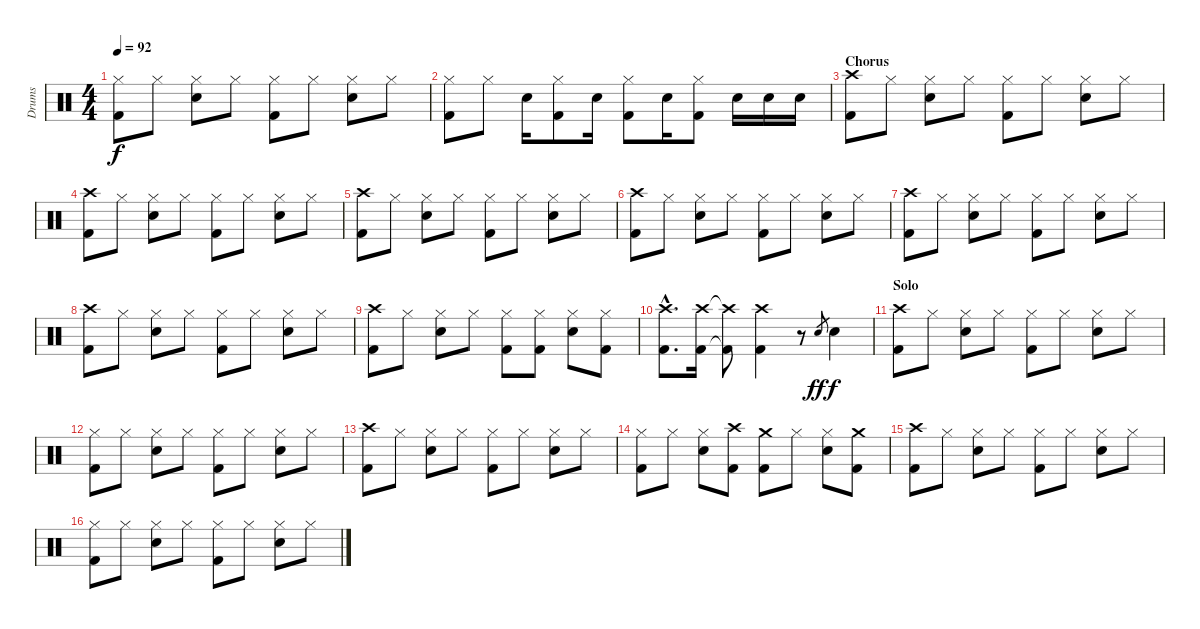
\track ("Drums" "Drums") {instrument percussion}
\staff {score}
\articulation defaults
\ts (4 4)
\tempo 92
\clef neutral
\ks c
("Hi-Hat (closed)" "Kick (hit) 2").8{dy f} "Hi-Hat (closed)".8 ("Hi-Hat (closed)" "Snare (hit) 2").8 "Hi-Hat (closed)".8 ("Hi-Hat (closed)" "Kick (hit) 2").8 "Hi-Hat (closed)".8 ("Hi-Hat (closed)" "Snare (hit) 2").8 "Hi-Hat (closed)".8 |
("Hi-Hat (closed)" "Kick (hit) 2").8 "Hi-Hat (closed)".8 "Snare (hit) 2".16 ("Hi-Hat (closed)" "Kick (hit) 2").8 "Snare (hit) 2".16 ("Hi-Hat (closed)" "Kick (hit) 2").8 "Snare (hit) 2".16 ("Hi-Hat (closed)" "Kick (hit) 2").8 "Snare (hit) 2".16 "Snare (hit) 2".16 "Snare (hit) 2".16 |
\section ("" "Chorus")
("Crash high (hit)" "Kick (hit) 2").8 "Hi-Hat (closed)".8 ("Hi-Hat (closed)" "Snare (hit) 2").8 "Hi-Hat (closed)".8 ("Hi-Hat (closed)" "Kick (hit) 2").8 "Hi-Hat (closed)".8 ("Hi-Hat (closed)" "Snare (hit) 2").8 "Hi-Hat (closed)".8 |
("Crash high (hit)" "Kick (hit) 2").8 "Hi-Hat (closed)".8 ("Hi-Hat (closed)" "Snare (hit) 2").8 "Hi-Hat (closed)".8 ("Hi-Hat (closed)" "Kick (hit) 2").8 "Hi-Hat (closed)".8 ("Hi-Hat (closed)" "Snare (hit) 2").8 "Hi-Hat (closed)".8 |
("Crash high (hit)" "Kick (hit) 2").8 "Hi-Hat (closed)".8 ("Hi-Hat (closed)" "Snare (hit) 2").8 "Hi-Hat (closed)".8 ("Hi-Hat (closed)" "Kick (hit) 2").8 "Hi-Hat (closed)".8 ("Hi-Hat (closed)" "Snare (hit) 2").8 "Hi-Hat (closed)".8 |
("Crash high (hit)" "Kick (hit) 2").8 "Hi-Hat (closed)".8 ("Hi-Hat (closed)" "Snare (hit) 2").8 "Hi-Hat (closed)".8 ("Hi-Hat (closed)" "Kick (hit) 2").8 "Hi-Hat (closed)".8 ("Hi-Hat (closed)" "Snare (hit) 2").8 "Hi-Hat (closed)".8 |
("Crash high (hit)" "Kick (hit) 2").8 "Hi-Hat (closed)".8 ("Hi-Hat (closed)" "Snare (hit) 2").8 "Hi-Hat (closed)".8 ("Hi-Hat (closed)" "Kick (hit) 2").8 "Hi-Hat (closed)".8 ("Hi-Hat (closed)" "Snare (hit) 2").8 "Hi-Hat (closed)".8 |
("Crash high (hit)" "Kick (hit) 2").8 "Hi-Hat (closed)".8 ("Hi-Hat (closed)" "Snare (hit) 2").8 "Hi-Hat (closed)".8 ("Hi-Hat (closed)" "Kick (hit) 2").8 "Hi-Hat (closed)".8 ("Hi-Hat (closed)" "Snare (hit) 2").8 "Hi-Hat (closed)".8 |
("Crash high (hit)" "Kick (hit) 2").8 "Hi-Hat (closed)".8 ("Hi-Hat (closed)" "Snare (hit) 2").8 "Hi-Hat (closed)".8 ("Hi-Hat (closed)" "Kick (hit) 2").8 ("Hi-Hat (closed)" "Kick (hit) 2").8 ("Hi-Hat (closed)" "Snare (hit) 2").8 ("Hi-Hat (closed)" "Kick (hit) 2").8 |
("Crash high (hit)"{hac} "Kick (hit) 2"{hac}).8{d} ("Crash high (hit)" "Kick (hit) 2").16 ("Crash high (hit)"{t} "Kick (hit) 2"{t}).8 ("Crash high (hit)" "Kick (hit) 2").4 r.8 "Snare (hit) 2".8{gr dy ff} "Snare (hit) 2".4{dy f} |
\section ("" "Solo")
("Crash high (hit)" "Kick (hit) 2").8 "Hi-Hat (closed)".8 ("Hi-Hat (closed)" "Snare (hit) 2").8 "Hi-Hat (closed)".8 ("Hi-Hat (closed)" "Kick (hit) 2").8 "Hi-Hat (closed)".8 ("Hi-Hat (closed)" "Snare (hit) 2").8 "Hi-Hat (closed)".8 |
("Hi-Hat (closed)" "Kick (hit) 2").8 "Hi-Hat (closed)".8 ("Hi-Hat (closed)" "Snare (hit) 2").8 "Hi-Hat (closed)".8 ("Hi-Hat (closed)" "Kick (hit) 2").8 "Hi-Hat (closed)".8 ("Hi-Hat (closed)" "Snare (hit) 2").8 "Hi-Hat (closed)".8 |
("Crash high (hit)" "Kick (hit) 2").8 "Hi-Hat (closed)".8 ("Hi-Hat (closed)" "Snare (hit) 2").8 "Hi-Hat (closed)".8 ("Hi-Hat (closed)" "Kick (hit) 2").8 "Hi-Hat (closed)".8 ("Hi-Hat (closed)" "Snare (hit) 2").8 "Hi-Hat (closed)".8 |
("Hi-Hat (closed)" "Kick (hit) 2").8 "Hi-Hat (closed)".8 ("Hi-Hat (closed)" "Snare (hit) 2").8 ("Crash high (hit)" "Kick (hit) 2").8 ("Crash medium (hit)" "Kick (hit) 2").8 "Hi-Hat (closed)".8 ("Hi-Hat (closed)" "Snare (hit) 2").8 ("Crash medium (hit)" "Kick (hit) 2").8 |
("Crash high (hit)" "Kick (hit) 2").8 "Hi-Hat (closed)".8 ("Hi-Hat (closed)" "Snare (hit) 2").8 "Hi-Hat (closed)".8 ("Hi-Hat (closed)" "Kick (hit) 2").8 "Hi-Hat (closed)".8 ("Hi-Hat (closed)" "Snare (hit) 2").8 "Hi-Hat (closed)".8 |
("Hi-Hat (closed)" "Kick (hit) 2").8 "Hi-Hat (closed)".8 ("Hi-Hat (closed)" "Snare (hit) 2").8 "Hi-Hat (closed)".8 ("Hi-Hat (closed)" "Kick (hit) 2").8 "Hi-Hat (closed)".8 ("Hi-Hat (closed)" "Snare (hit) 2").8 "Hi-Hat (closed)".8
